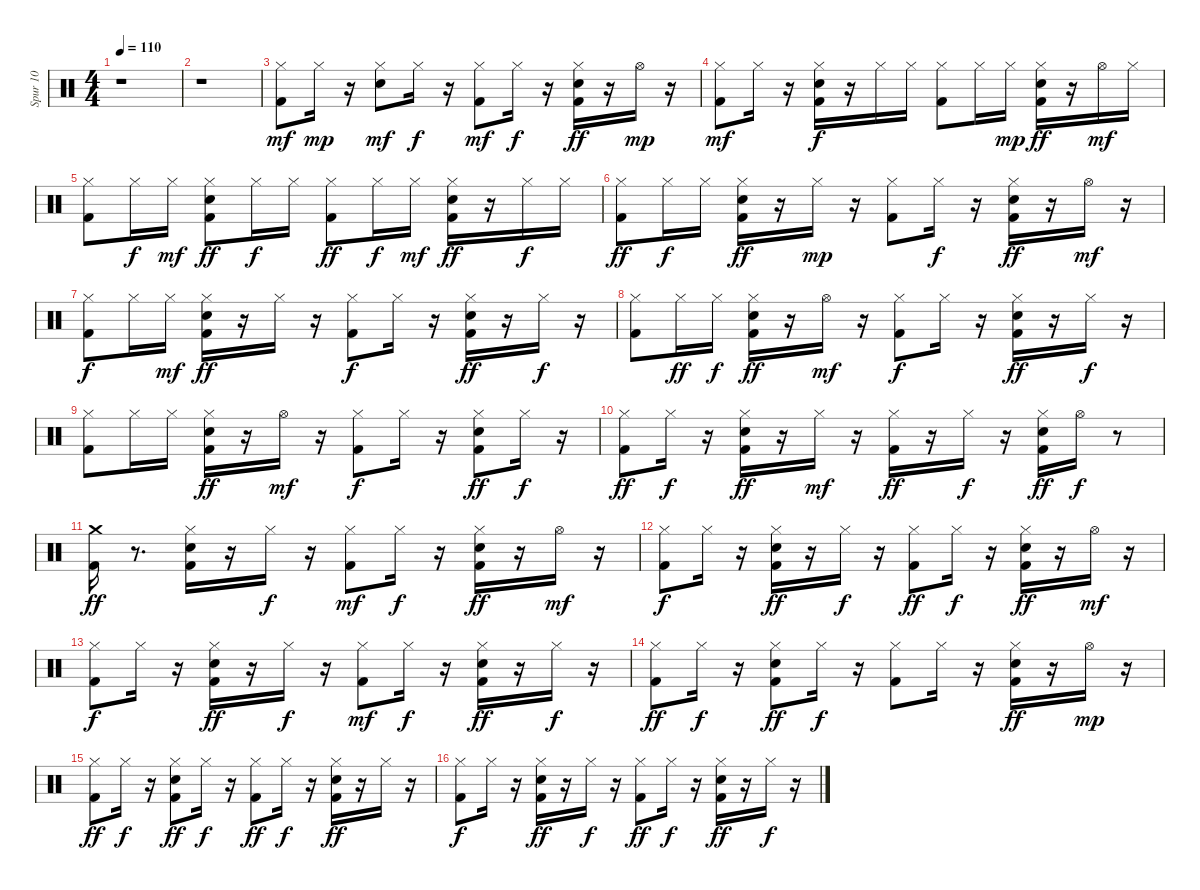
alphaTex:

\track ("Spur 10" "Spur 10") {instrument percussion}
\staff {score}
\articulation defaults
\ts (4 4)
\tempo 110
\clef neutral
\ks c
r.1{dy mf} |
r.1 |
("Kick (hit) 2" "Hi-Hat (closed)").8 "Hi-Hat (closed)".16{dy mp} r.16 ("Snare (hit) 2" "Hi-Hat (closed)").8{dy mf} "Hi-Hat (closed)".16{dy f} r.16 ("Kick (hit) 2" "Hi-Hat (closed)").8{dy mf} "Hi-Hat (closed)".16{dy f} r.16 ("Snare (hit) 2" "Kick (hit) 2" "Hi-Hat (closed)").16{dy ff} r.16 "Hi-Hat (open)".16{dy mp} r.16 |
("Kick (hit) 2" "Hi-Hat (closed)").8{dy mf} "Hi-Hat (closed)".16 r.16 ("Hi-Hat (closed)" "Kick (hit) 2" "Snare (hit) 2").16{dy f} r.16 "Hi-Hat (closed)".16 "Hi-Hat (closed)".16 ("Kick (hit) 2" "Hi-Hat (closed)").8 "Hi-Hat (closed)".16 "Hi-Hat (closed)".16{dy mp} ("Snare (hit) 2" "Kick (hit) 2" "Hi-Hat (closed)").16{dy ff} r.16 "Hi-Hat (open)".16{dy mf} "Hi-Hat (closed)".16 |
("Kick (hit) 2" "Hi-Hat (closed)").8 "Hi-Hat (closed)".16{dy f} "Hi-Hat (closed)".16{dy mf} ("Snare (hit) 2" "Kick (hit) 2" "Hi-Hat (closed)").8{dy ff} "Hi-Hat (closed)".16{dy f} "Hi-Hat (closed)".16 ("Kick (hit) 2" "Hi-Hat (closed)").8{dy ff} "Hi-Hat (closed)".16{dy f} "Hi-Hat (closed)".16{dy mf} ("Kick (hit) 2" "Snare (hit) 2" "Hi-Hat (closed)").16{dy ff} r.16 "Hi-Hat (closed)".16{dy f} "Hi-Hat (closed)".16 |
("Kick (hit) 2" "Hi-Hat (closed)").8{dy ff} "Hi-Hat (closed)".16{dy f} "Hi-Hat (closed)".16 ("Kick (hit) 2" "Snare (hit) 2" "Hi-Hat (closed)").16{dy ff} r.16 "Hi-Hat (closed)".16{dy mp} r.16 ("Kick (hit) 2" "Hi-Hat (closed)").8 "Hi-Hat (closed)".16{dy f} r.16 ("Snare (hit) 2" "Kick (hit) 2" "Hi-Hat (closed)").16{dy ff} r.16 "Hi-Hat (open)".16{dy mf} r.16 |
("Hi-Hat (closed)" "Kick (hit) 2").8{dy f} "Hi-Hat (closed)".16 "Hi-Hat (closed)".16{dy mf} ("Kick (hit) 2" "Snare (hit) 2" "Hi-Hat (closed)").16{dy ff} r.16 "Hi-Hat (closed)".16 r.16 ("Kick (hit) 2" "Hi-Hat (closed)").8{dy f} "Hi-Hat (closed)".16 r.16 ("Kick (hit) 2" "Snare (hit) 2" "Hi-Hat (closed)").16{dy ff} r.16 "Hi-Hat (closed)".16{dy f} r.16 |
("Kick (hit) 2" "Hi-Hat (closed)").8 "Hi-Hat (closed)".16{dy ff} "Hi-Hat (closed)".16{dy f} ("Kick (hit) 2" "Snare (hit) 2" "Hi-Hat (closed)").16{dy ff} r.16 "Hi-Hat (open)".16{dy mf} r.16 ("Kick (hit) 2" "Hi-Hat (closed)").8{dy f} "Hi-Hat (closed)".16 r.16 ("Snare (hit) 2" "Kick (hit) 2" "Hi-Hat (closed)").16{dy ff} r.16 "Hi-Hat (closed)".16{dy f} r.16 |
("Kick (hit) 2" "Hi-Hat (closed)").8 "Hi-Hat (closed)".16 "Hi-Hat (closed)".16 ("Kick (hit) 2" "Snare (hit) 2" "Hi-Hat (closed)").16{dy ff} r.16 "Hi-Hat (open)".16{dy mf} r.16 ("Kick (hit) 2" "Hi-Hat (closed)").8{dy f} "Hi-Hat (closed)".16 r.16 ("Kick (hit) 2" "Snare (hit) 2" "Hi-Hat (closed)").8{dy ff} "Hi-Hat (closed)".16{dy f} r.16 |
("Kick (hit) 2" "Hi-Hat (closed)").8{dy ff} "Hi-Hat (closed)".16{dy f} r.16 ("Hi-Hat (closed)" "Snare (hit) 2" "Kick (hit) 2").16{dy ff} r.16 "Hi-Hat (closed)".16{dy mf} r.16 ("Kick (hit) 2" "Hi-Hat (closed)").16{dy ff} r.16 "Hi-Hat (closed)".16{dy f} r.16 ("Snare (hit) 2" "Kick (hit) 2" "Hi-Hat (closed)").16{dy ff} "Hi-Hat (open)".16{dy f} r.8 |
("Kick (hit) 2" "Crash medium (hit)").16{dy ff} r.8{d} ("Snare (hit) 2" "Kick (hit) 2" "Hi-Hat (closed)").16 r.16 "Hi-Hat (closed)".16{dy f} r.16 ("Hi-Hat (closed)" "Kick (hit) 2").8{dy mf} "Hi-Hat (closed)".16{dy f} r.16 ("Kick (hit) 2" "Snare (hit) 2" "Hi-Hat (closed)").16{dy ff} r.16 "Hi-Hat (open)".16{dy mf} r.16 |
("Kick (hit) 2" "Hi-Hat (closed)").8{dy f} "Hi-Hat (closed)".16 r.16 ("Kick (hit) 2" "Snare (hit) 2" "Hi-Hat (closed)").16{dy ff} r.16 "Hi-Hat (closed)".16{dy f} r.16 ("Kick (hit) 2" "Hi-Hat (closed)").8{dy ff} "Hi-Hat (closed)".16{dy f} r.16 ("Kick (hit) 2" "Snare (hit) 2" "Hi-Hat (closed)").16{dy ff} r.16 "Hi-Hat (open)".16{dy mf} r.16 |
("Hi-Hat (closed)" "Kick (hit) 2").8{dy f} "Hi-Hat (closed)".16 r.16 ("Hi-Hat (closed)" "Kick (hit) 2" "Snare (hit) 2").16{dy ff} r.16 "Hi-Hat (closed)".16{dy f} r.16 ("Kick (hit) 2" "Hi-Hat (closed)").8{dy mf} "Hi-Hat (closed)".16{dy f} r.16 ("Kick (hit) 2" "Snare (hit) 2" "Hi-Hat (closed)").16{dy ff} r.16 "Hi-Hat (closed)".16{dy f} r.16 |
("Kick (hit) 2" "Hi-Hat (closed)").8{dy ff} "Hi-Hat (closed)".16{dy f} r.16 ("Kick (hit) 2" "Snare (hit) 2" "Hi-Hat (closed)").8{dy ff} "Hi-Hat (closed)".16{dy f} r.16 ("Kick (hit) 2" "Hi-Hat (closed)").8 "Hi-Hat (closed)".16 r.16 ("Snare (hit) 2" "Kick (hit) 2" "Hi-Hat (closed)").16{dy ff} r.16 "Hi-Hat (open)".16{dy mp} r.16 |
("Hi-Hat (closed)" "Kick (hit) 2").8{dy ff} "Hi-Hat (closed)".16{dy f} r.16 ("Snare (hit) 2" "Kick (hit) 2" "Hi-Hat (closed)").8{dy ff} "Hi-Hat (closed)".16{dy f} r.16 ("Hi-Hat (closed)" "Kick (hit) 2").8{dy ff} "Hi-Hat (closed)".16{dy f} r.16 ("Kick (hit) 2" "Hi-Hat (closed)" "Snare (hit) 2").16{dy ff} r.16 "Hi-Hat (closed)".16 r.16 |
("Kick (hit) 2" "Hi-Hat (closed)").8{dy f} "Hi-Hat (closed)".16 r.16 ("Kick (hit) 2" "Hi-Hat (closed)" "Snare (hit) 2").16{dy ff} r.16 "Hi-Hat (closed)".16{dy f} r.16 ("Hi-Hat (closed)" "Kick (hit) 2").8{dy ff} "Hi-Hat (closed)".16{dy f} r.16 ("Kick (hit) 2" "Snare (hit) 2" "Hi-Hat (closed)").16{dy ff} r.16 "Hi-Hat (closed)".16{dy f} r.16
